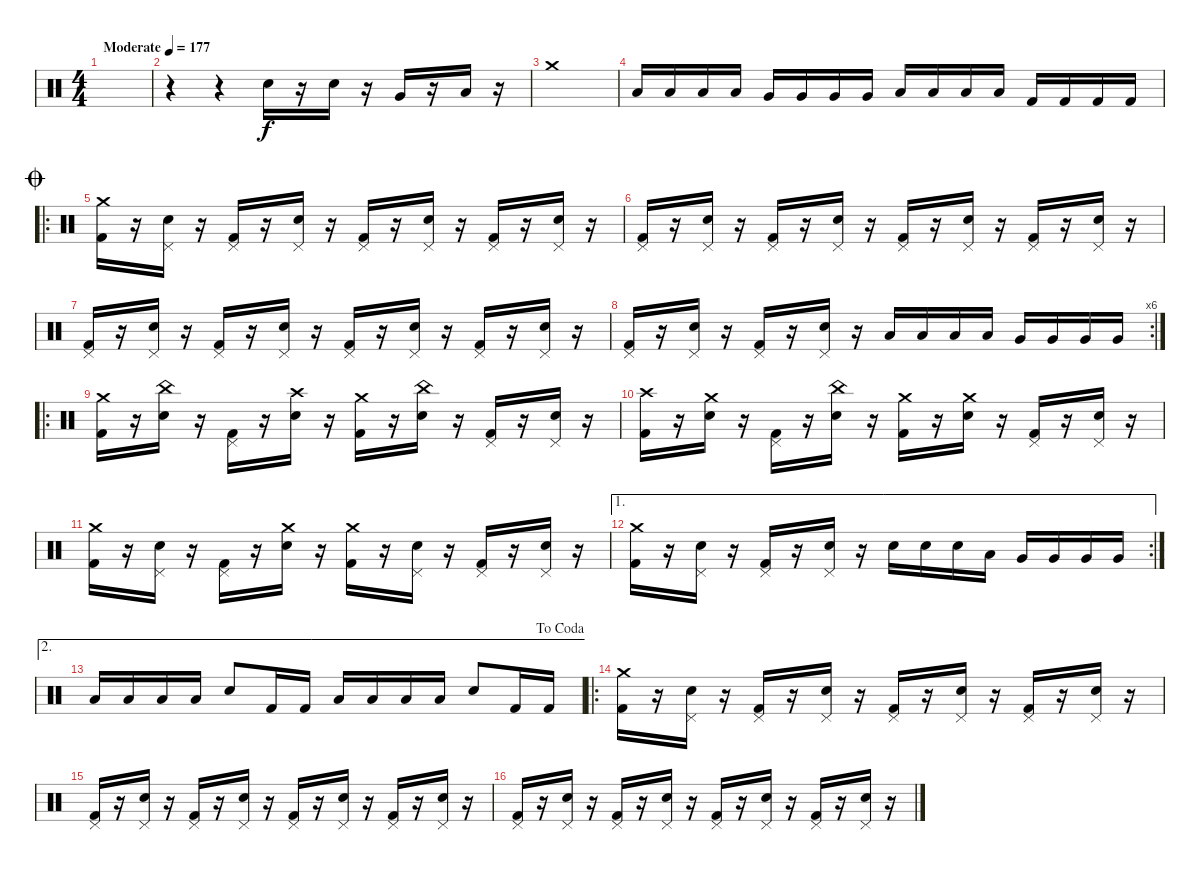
\track "" {instrument percussion}
\staff {score}
\articulation defaults
\ts (4 4)
\tempo (177 "Moderate")
\clef neutral
\ks c
|
r.4 r.4 "Electric Snare (hit)".16 r.16 "Electric Snare (hit)".16 r.16 "Very Low Tom (hit)".16 r.16 "Low Tom (hit)".16 r.16 |
"Crash medium (hit)".1 |
"Low Floor Tom (hit)".16 "Low Floor Tom (hit)".16 "Low Floor Tom (hit)".16 "Low Floor Tom (hit)".16 "Very Low Tom (hit)".16 "Very Low Tom (hit)".16 "Very Low Tom (hit)".16 "Very Low Tom (hit)".16 "Low Tom (hit)".16 "Low Tom (hit)".16 "Low Tom (hit)".16 "Low Tom (hit)".16 "Kick (hit) 2".16 "Kick (hit) 2".16 "Kick (hit) 2".16 "Kick (hit) 2".16 |
\ro
\jump coda
("Crash medium (hit)" "Kick (hit) 2").16 r.16 ("Electric Snare (hit)" "Pedal Hi-Hat (hit)").16 r.16 ("Kick (hit) 2" "Pedal Hi-Hat (hit)").16 r.16 ("Electric Snare (hit)" "Pedal Hi-Hat (hit)").16 r.16 ("Kick (hit) 2" "Pedal Hi-Hat (hit)").16 r.16 ("Electric Snare (hit)" "Pedal Hi-Hat (hit)").16 r.16 ("Kick (hit) 2" "Pedal Hi-Hat (hit)").16 r.16 ("Electric Snare (hit)" "Pedal Hi-Hat (hit)").16 r.16 |
("Kick (hit) 2" "Pedal Hi-Hat (hit)").16 r.16 ("Electric Snare (hit)" "Pedal Hi-Hat (hit)").16 r.16 ("Kick (hit) 2" "Pedal Hi-Hat (hit)").16 r.16 ("Electric Snare (hit)" "Pedal Hi-Hat (hit)").16 r.16 ("Kick (hit) 2" "Pedal Hi-Hat (hit)").16 r.16 ("Electric Snare (hit)" "Pedal Hi-Hat (hit)").16 r.16 ("Kick (hit) 2" "Pedal Hi-Hat (hit)").16 r.16 ("Electric Snare (hit)" "Pedal Hi-Hat (hit)").16 r.16 |
("Kick (hit) 2" "Pedal Hi-Hat (hit)").16 r.16 ("Electric Snare (hit)" "Pedal Hi-Hat (hit)").16 r.16 ("Kick (hit) 2" "Pedal Hi-Hat (hit)").16 r.16 ("Electric Snare (hit)" "Pedal Hi-Hat (hit)").16 r.16 ("Kick (hit) 2" "Pedal Hi-Hat (hit)").16 r.16 ("Electric Snare (hit)" "Pedal Hi-Hat (hit)").16 r.16 ("Kick (hit) 2" "Pedal Hi-Hat (hit)").16 r.16 ("Electric Snare (hit)" "Pedal Hi-Hat (hit)").16 r.16 |
\rc 6
("Kick (hit) 2" "Pedal Hi-Hat (hit)").16 r.16 ("Electric Snare (hit)" "Pedal Hi-Hat (hit)").16 r.16 ("Kick (hit) 2" "Pedal Hi-Hat (hit)").16 r.16 ("Electric Snare (hit)" "Pedal Hi-Hat (hit)").16 r.16 "Low Floor Tom (hit)".16 "Low Floor Tom (hit)".16 "Low Floor Tom (hit)".16 "Low Floor Tom (hit)".16 "Very Low Tom (hit)".16 "Very Low Tom (hit)".16 "Very Low Tom (hit)".16 "Very Low Tom (hit)".16 |
\ro
("Crash medium (hit)" "Kick (hit) 2").16 r.16 ("Electric Snare (hit)" "China (hit)").16 r.16 ("Kick (hit) 2" "Pedal Hi-Hat (hit)").16 r.16 ("Electric Snare (hit)" "Crash high (hit)").16 r.16 ("Kick (hit) 2" "Crash medium (hit)").16 r.16 ("Electric Snare (hit)" "China (hit)").16 r.16 ("Kick (hit) 2" "Pedal Hi-Hat (hit)").16 r.16 ("Electric Snare (hit)" "Pedal Hi-Hat (hit)").16 r.16 |
("Kick (hit) 2" "Crash high (hit)").16 r.16 ("Electric Snare (hit)" "Crash medium (hit)").16 r.16 ("Kick (hit) 2" "Pedal Hi-Hat (hit)").16 r.16 ("Electric Snare (hit)" "China (hit)").16 r.16 ("Kick (hit) 2" "Crash medium (hit)").16 r.16 ("Electric Snare (hit)" "Crash medium (hit)").16 r.16 ("Kick (hit) 2" "Pedal Hi-Hat (hit)").16 r.16 ("Electric Snare (hit)" "Pedal Hi-Hat (hit)").16 r.16 |
("Kick (hit) 2" "Crash medium (hit)").16 r.16 ("Electric Snare (hit)" "Pedal Hi-Hat (hit)").16 r.16 ("Kick (hit) 2" "Pedal Hi-Hat (hit)").16 r.16 ("Electric Snare (hit)" "Crash medium (hit)").16 r.16 ("Kick (hit) 2" "Crash medium (hit)").16 r.16 ("Electric Snare (hit)" "Pedal Hi-Hat (hit)").16 r.16 ("Kick (hit) 2" "Pedal Hi-Hat (hit)").16 r.16 ("Electric Snare (hit)" "Pedal Hi-Hat (hit)").16 r.16 |
\ae 1
\rc 2
("Kick (hit) 2" "Crash medium (hit)").16 r.16 ("Electric Snare (hit)" "Pedal Hi-Hat (hit)").16 r.16 ("Kick (hit) 2" "Pedal Hi-Hat (hit)").16 r.16 ("Electric Snare (hit)" "Pedal Hi-Hat (hit)").16 r.16 "Electric Snare (hit)".16 "Electric Snare (hit)".16 "Electric Snare (hit)".16 "Low Floor Tom (hit)".16 "Very Low Tom (hit)".16 "Very Low Tom (hit)".16 "Very Low Tom (hit)".16 "Very Low Tom (hit)".16 |
\ae 2
\jump dacoda "Low Floor Tom (hit)".16 "Low Floor Tom (hit)".16 "Low Floor Tom (hit)".16 "Low Floor Tom (hit)".16 "Electric Snare (hit)".8 "Kick (hit) 2".16 "Kick (hit) 2".16 "Low Tom (hit)".16 "Low Tom (hit)".16 "Low Tom (hit)".16 "Low Tom (hit)".16 "Electric Snare (hit)".8 "Kick (hit) 2".16 "Kick (hit) 2".16
|
\ro
("Crash medium (hit)" "Kick (hit) 2").16 r.16 ("Electric Snare (hit)" "Pedal Hi-Hat (hit)").16 r.16 ("Kick (hit) 2" "Pedal Hi-Hat (hit)").16 r.16 ("Electric Snare (hit)" "Pedal Hi-Hat (hit)").16 r.16 ("Kick (hit) 2" "Pedal Hi-Hat (hit)").16 r.16 ("Electric Snare (hit)" "Pedal Hi-Hat (hit)").16 r.16 ("Kick (hit) 2" "Pedal Hi-Hat (hit)").16 r.16 ("Electric Snare (hit)" "Pedal Hi-Hat (hit)").16 r.16 |
("Kick (hit) 2" "Pedal Hi-Hat (hit)").16 r.16 ("Electric Snare (hit)" "Pedal Hi-Hat (hit)").16 r.16 ("Kick (hit) 2" "Pedal Hi-Hat (hit)").16 r.16 ("Electric Snare (hit)" "Pedal Hi-Hat (hit)").16 r.16 ("Kick (hit) 2" "Pedal Hi-Hat (hit)").16 r.16 ("Electric Snare (hit)" "Pedal Hi-Hat (hit)").16 r.16 ("Kick (hit) 2" "Pedal Hi-Hat (hit)").16 r.16 ("Electric Snare (hit)" "Pedal Hi-Hat (hit)").16 r.16 |
("Kick (hit) 2" "Pedal Hi-Hat (hit)").16 r.16 ("Electric Snare (hit)" "Pedal Hi-Hat (hit)").16 r.16 ("Kick (hit) 2" "Pedal Hi-Hat (hit)").16 r.16 ("Electric Snare (hit)" "Pedal Hi-Hat (hit)").16 r.16 ("Kick (hit) 2" "Pedal Hi-Hat (hit)").16 r.16 ("Electric Snare (hit)" "Pedal Hi-Hat (hit)").16 r.16 ("Kick (hit) 2" "Pedal Hi-Hat (hit)").16 r.16 ("Electric Snare (hit)" "Pedal Hi-Hat (hit)").16 r.16
